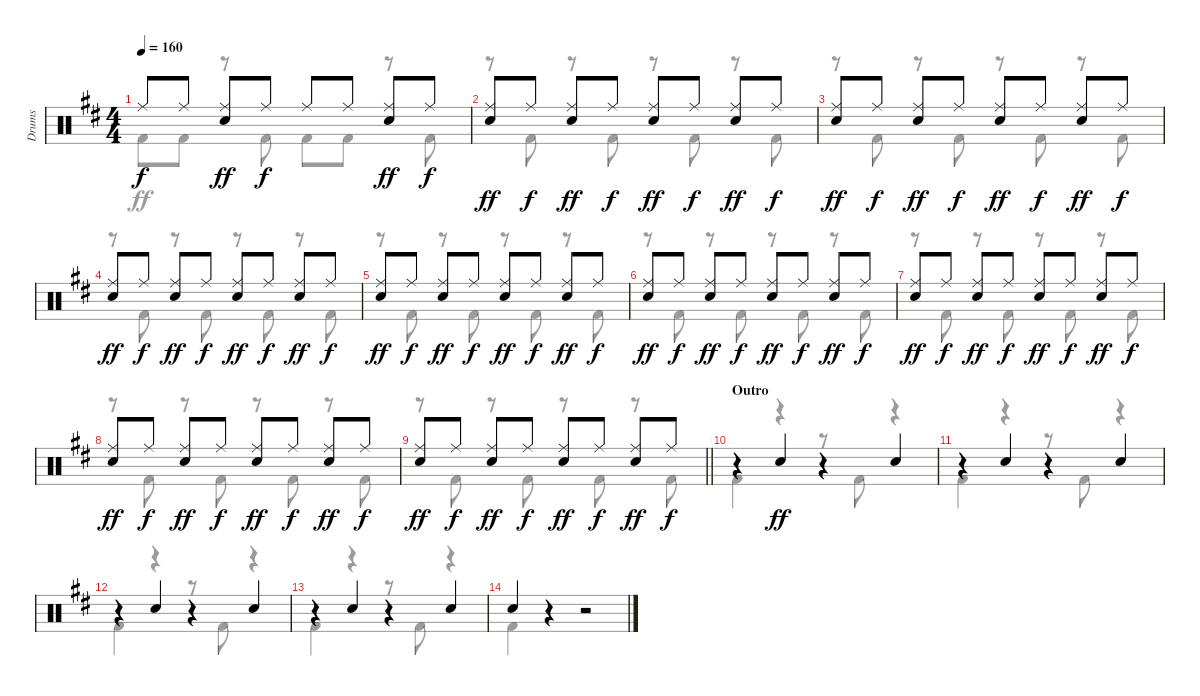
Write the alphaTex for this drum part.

\track ("Drums" "Drums") {instrument percussion}
\staff {score}
\articulation defaults
\voice
\ts (4 4)
\tempo 160
\clef neutral
\ks bminor "Ride (middle)".8{dy f} "Ride (middle)".8
("Ride (middle)" "Electric Snare (hit)").8{dy ff} "Ride (middle)".8{dy f} "Ride (middle)".8 "Ride (middle)".8 ("Ride (middle)" "Electric Snare (hit)").8{dy ff} "Ride (middle)".8{dy f} |
("Ride (middle)" "Electric Snare (hit)").8{dy ff} "Ride (middle)".8{dy f} ("Ride (middle)" "Electric Snare (hit)").8{dy ff} "Ride (middle)".8{dy f} ("Ride (middle)" "Electric Snare (hit)").8{dy ff} "Ride (middle)".8{dy f} ("Ride (middle)" "Electric Snare (hit)").8{dy ff} "Ride (middle)".8{dy f} |
("Ride (middle)" "Electric Snare (hit)").8{dy ff} "Ride (middle)".8{dy f} ("Ride (middle)" "Electric Snare (hit)").8{dy ff} "Ride (middle)".8{dy f} ("Ride (middle)" "Electric Snare (hit)").8{dy ff} "Ride (middle)".8{dy f} ("Ride (middle)" "Electric Snare (hit)").8{dy ff} "Ride (middle)".8{dy f} |
("Ride (middle)" "Electric Snare (hit)").8{dy ff} "Ride (middle)".8{dy f} ("Ride (middle)" "Electric Snare (hit)").8{dy ff} "Ride (middle)".8{dy f} ("Ride (middle)" "Electric Snare (hit)").8{dy ff} "Ride (middle)".8{dy f} ("Ride (middle)" "Electric Snare (hit)").8{dy ff} "Ride (middle)".8{dy f} |
("Ride (middle)" "Electric Snare (hit)").8{dy ff} "Ride (middle)".8{dy f} ("Ride (middle)" "Electric Snare (hit)").8{dy ff} "Ride (middle)".8{dy f} ("Ride (middle)" "Electric Snare (hit)").8{dy ff} "Ride (middle)".8{dy f} ("Ride (middle)" "Electric Snare (hit)").8{dy ff} "Ride (middle)".8{dy f} |
("Ride (middle)" "Electric Snare (hit)").8{dy ff} "Ride (middle)".8{dy f} ("Ride (middle)" "Electric Snare (hit)").8{dy ff} "Ride (middle)".8{dy f} ("Ride (middle)" "Electric Snare (hit)").8{dy ff} "Ride (middle)".8{dy f} ("Ride (middle)" "Electric Snare (hit)").8{dy ff} "Ride (middle)".8{dy f} |
("Ride (middle)" "Electric Snare (hit)").8{dy ff} "Ride (middle)".8{dy f} ("Ride (middle)" "Electric Snare (hit)").8{dy ff} "Ride (middle)".8{dy f} ("Ride (middle)" "Electric Snare (hit)").8{dy ff} "Ride (middle)".8{dy f} ("Ride (middle)" "Electric Snare (hit)").8{dy ff} "Ride (middle)".8{dy f} |
("Ride (middle)" "Electric Snare (hit)").8{dy ff} "Ride (middle)".8{dy f} ("Ride (middle)" "Electric Snare (hit)").8{dy ff} "Ride (middle)".8{dy f} ("Ride (middle)" "Electric Snare (hit)").8{dy ff} "Ride (middle)".8{dy f} ("Ride (middle)" "Electric Snare (hit)").8{dy ff} "Ride (middle)".8{dy f} |
\barLineRight lightlight
("Ride (middle)" "Electric Snare (hit)").8{dy ff} "Ride (middle)".8{dy f} ("Ride (middle)" "Electric Snare (hit)").8{dy ff} "Ride (middle)".8{dy f} ("Ride (middle)" "Electric Snare (hit)").8{dy ff} "Ride (middle)".8{dy f} ("Ride (middle)" "Electric Snare (hit)").8{dy ff} "Ride (middle)".8{dy f} |
\section ("" "Outro")
r.4 "Electric Snare (hit)".4{dy ff} r.4 "Electric Snare (hit)".4 |
r.4 "Electric Snare (hit)".4 r.4 "Electric Snare (hit)".4 |
r.4 "Electric Snare (hit)".4 r.4 "Electric Snare (hit)".4 |
r.4 "Electric Snare (hit)".4 r.4 "Electric Snare (hit)".4 |
"Electric Snare (hit)".4 r.4 r.2
\voice
\clef neutral
\ottava regular
\simile none
\ks bminor "Kick (hit) 2".8{dy ff} "Kick (hit) 2".8
r.8 "Kick (hit) 2".8 "Kick (hit) 2".8 "Kick (hit) 2".8 r.8 "Kick (hit) 2".8 |
r.8 "Kick (hit) 2".8 r.8 "Kick (hit) 2".8 r.8 "Kick (hit) 2".8 r.8 "Kick (hit) 2".8 |
r.8 "Kick (hit) 2".8 r.8 "Kick (hit) 2".8 r.8 "Kick (hit) 2".8 r.8 "Kick (hit) 2".8 |
r.8 "Kick (hit) 2".8 r.8 "Kick (hit) 2".8 r.8 "Kick (hit) 2".8 r.8 "Kick (hit) 2".8 |
r.8 "Kick (hit) 2".8 r.8 "Kick (hit) 2".8 r.8 "Kick (hit) 2".8 r.8 "Kick (hit) 2".8 |
r.8 "Kick (hit) 2".8 r.8 "Kick (hit) 2".8 r.8 "Kick (hit) 2".8 r.8 "Kick (hit) 2".8 |
r.8 "Kick (hit) 2".8 r.8 "Kick (hit) 2".8 r.8 "Kick (hit) 2".8 r.8 "Kick (hit) 2".8 |
r.8 "Kick (hit) 2".8 r.8 "Kick (hit) 2".8 r.8 "Kick (hit) 2".8 r.8 "Kick (hit) 2".8 |
\barLineRight lightlight
r.8 "Kick (hit) 2".8 r.8 "Kick (hit) 2".8 r.8 "Kick (hit) 2".8 r.8 "Kick (hit) 2".8 |
"Kick (hit) 2".4 r.4 r.8 "Kick (hit) 2".8 r.4 |
"Kick (hit) 2".4 r.4 r.8 "Kick (hit) 2".8 r.4 |
"Kick (hit) 2".4 r.4 r.8 "Kick (hit) 2".8 r.4 |
"Kick (hit) 2".4 r.4 r.8 "Kick (hit) 2".8 r.4 |
"Kick (hit) 2".4 r.4 r.2
